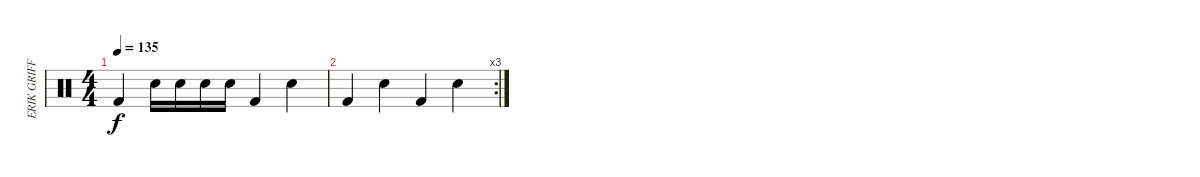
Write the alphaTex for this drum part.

\track ("ERIK GRIFFIN DRUMS" "ERIK GRIFF") {instrument percussion}
\staff {score}
\articulation defaults
\ts (4 4)
\tempo 135
\clef neutral
\ks c "Kick (hit) 2".4{dy f} "Snare (hit) 2".16 "Snare (hit) 2".16 "Snare (hit) 2".16 "Snare (hit) 2".16 "Kick (hit) 2".4 "Snare (hit) 2".4
|
\rc 3 "Kick (hit) 2".4 "Snare (hit) 2".4 "Kick (hit) 2".4 "Snare (hit) 2".4
